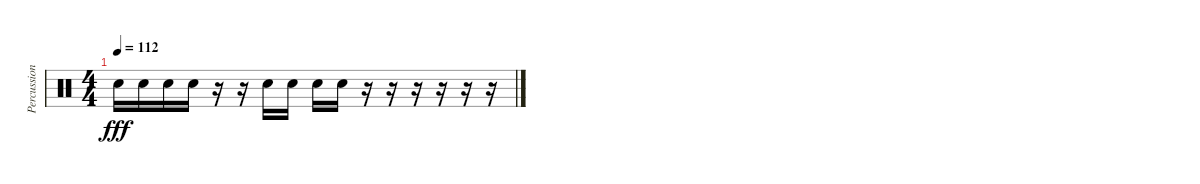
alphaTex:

\track ("Percussion" "Percussion") {instrument percussion}
\staff {score}
\articulation defaults
\ts (4 4)
\tempo 112
\clef neutral
\ks c "Snare (hit) 2".16{dy fff} "Snare (hit) 2".16 "Snare (hit) 2".16 "Snare (hit) 2".16
r.16 r.16 "Snare (hit) 2".16 "Snare (hit) 2".16 "Snare (hit) 2".16 "Snare (hit) 2".16 r.16 r.16 r.16 r.16 r.16 r.16
